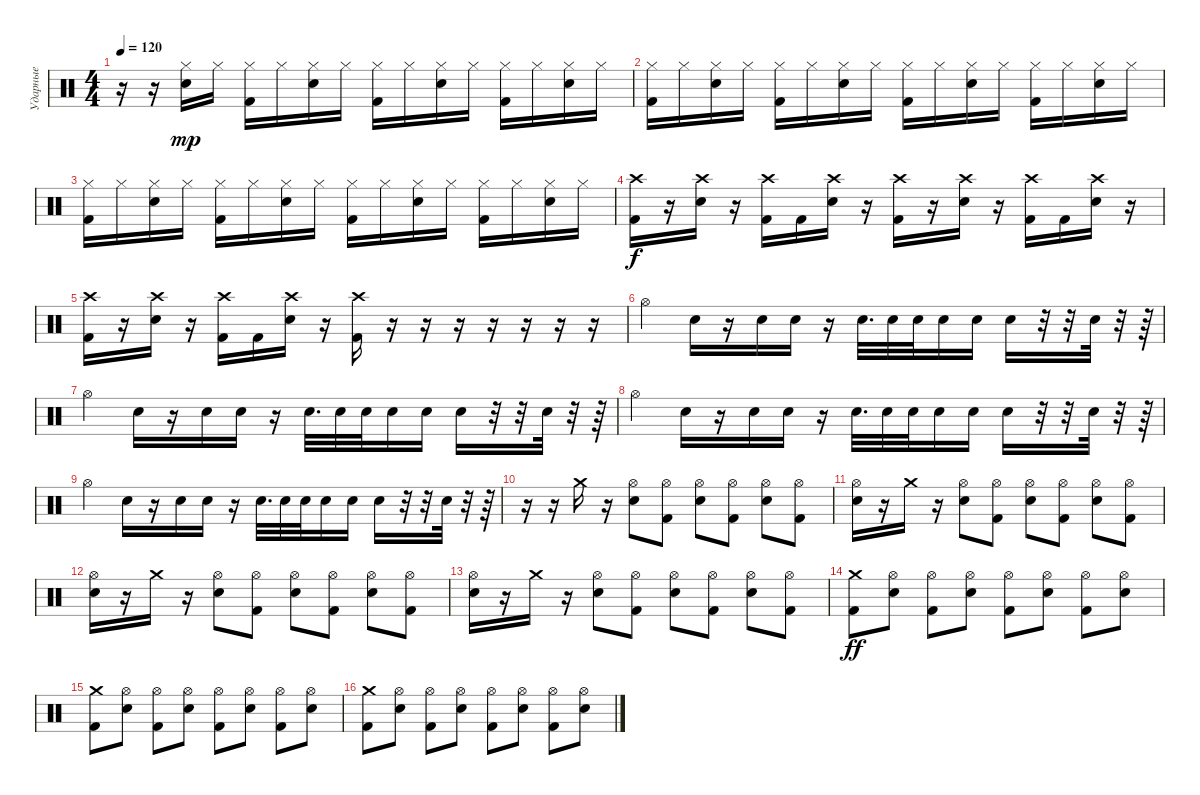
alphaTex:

\track ("Ударные" "Ударные") {instrument percussion}
\staff {score}
\articulation defaults
\ts (4 4)
\tempo 120
\clef neutral
\ks c
r.16{dy mp} r.16 ("Hi-Hat (closed)" "Electric Snare (hit)").16 "Hi-Hat (closed)".16 ("Hi-Hat (closed)" "Kick (hit) 2").16 "Hi-Hat (closed)".16 ("Hi-Hat (closed)" "Electric Snare (hit)").16 "Hi-Hat (closed)".16 ("Hi-Hat (closed)" "Kick (hit) 2").16 "Hi-Hat (closed)".16 ("Hi-Hat (closed)" "Electric Snare (hit)").16 "Hi-Hat (closed)".16 ("Hi-Hat (closed)" "Kick (hit) 2").16 "Hi-Hat (closed)".16 ("Hi-Hat (closed)" "Electric Snare (hit)").16 "Hi-Hat (closed)".16 |
("Hi-Hat (closed)" "Kick (hit) 2").16 "Hi-Hat (closed)".16 ("Hi-Hat (closed)" "Electric Snare (hit)").16 "Hi-Hat (closed)".16 ("Hi-Hat (closed)" "Kick (hit) 2").16 "Hi-Hat (closed)".16 ("Hi-Hat (closed)" "Electric Snare (hit)").16 "Hi-Hat (closed)".16 ("Hi-Hat (closed)" "Kick (hit) 2").16 "Hi-Hat (closed)".16 ("Hi-Hat (closed)" "Electric Snare (hit)").16 "Hi-Hat (closed)".16 ("Hi-Hat (closed)" "Kick (hit) 2").16 "Hi-Hat (closed)".16 ("Hi-Hat (closed)" "Electric Snare (hit)").16 "Hi-Hat (closed)".16 |
("Hi-Hat (closed)" "Kick (hit) 2").16 "Hi-Hat (closed)".16 ("Hi-Hat (closed)" "Electric Snare (hit)").16 "Hi-Hat (closed)".16 ("Hi-Hat (closed)" "Kick (hit) 2").16 "Hi-Hat (closed)".16 ("Hi-Hat (closed)" "Electric Snare (hit)").16 "Hi-Hat (closed)".16 ("Hi-Hat (closed)" "Kick (hit) 2").16 "Hi-Hat (closed)".16 ("Hi-Hat (closed)" "Electric Snare (hit)").16 "Hi-Hat (closed)".16 ("Hi-Hat (closed)" "Kick (hit) 2").16 "Hi-Hat (closed)".16 ("Hi-Hat (closed)" "Electric Snare (hit)").16 "Hi-Hat (closed)".16 |
("Crash high (hit)" "Kick (hit) 2").16{dy f} r.16 ("Crash high (hit)" "Electric Snare (hit)").16 r.16 ("Crash high (hit)" "Kick (hit) 2").16 "Kick (hit) 2".16 ("Crash high (hit)" "Electric Snare (hit)").16 r.16 ("Crash high (hit)" "Kick (hit) 2").16 r.16 ("Crash high (hit)" "Electric Snare (hit)").16 r.16 ("Crash high (hit)" "Kick (hit) 2").16 "Kick (hit) 2".16 ("Crash high (hit)" "Electric Snare (hit)").16 r.16 |
("Crash high (hit)" "Kick (hit) 2").16 r.16 ("Crash high (hit)" "Electric Snare (hit)").16 r.16 ("Crash high (hit)" "Kick (hit) 2").16 "Kick (hit) 2".16 ("Crash high (hit)" "Electric Snare (hit)").16 r.16 ("Crash high (hit)" "Kick (hit) 2").16 r.16 r.16 r.16 r.16 r.16 r.16 r.16 |
"Hi-Hat (open)".4 "Electric Snare (hit)".16 r.16 "Electric Snare (hit)".16 "Electric Snare (hit)".16 r.16 "Electric Snare (hit)".32{d} "Electric Snare (hit)".32 "Electric Snare (hit)".32 "Electric Snare (hit)".16 "Electric Snare (hit)".16 "Electric Snare (hit)".16 r.32 r.32 "Electric Snare (hit)".32 r.32 r.64 |
"Hi-Hat (open)".4 "Electric Snare (hit)".16 r.16 "Electric Snare (hit)".16 "Electric Snare (hit)".16 r.16 "Electric Snare (hit)".32{d} "Electric Snare (hit)".32 "Electric Snare (hit)".32 "Electric Snare (hit)".16 "Electric Snare (hit)".16 "Electric Snare (hit)".16 r.32 r.32 "Electric Snare (hit)".32 r.32 r.64 |
"Hi-Hat (open)".4 "Electric Snare (hit)".16 r.16 "Electric Snare (hit)".16 "Electric Snare (hit)".16 r.16 "Electric Snare (hit)".32{d} "Electric Snare (hit)".32 "Electric Snare (hit)".32 "Electric Snare (hit)".16 "Electric Snare (hit)".16 "Electric Snare (hit)".16 r.32 r.32 "Electric Snare (hit)".32 r.32 r.64 |
"Hi-Hat (open)".4 "Electric Snare (hit)".16 r.16 "Electric Snare (hit)".16 "Electric Snare (hit)".16 r.16 "Electric Snare (hit)".32{d} "Electric Snare (hit)".32 "Electric Snare (hit)".32 "Electric Snare (hit)".16 "Electric Snare (hit)".16 "Electric Snare (hit)".16 r.32 r.32 "Electric Snare (hit)".32 r.32 r.64 |
r.16 r.16 "Crash medium (hit)".16 r.16 ("Hi-Hat (open)" "Electric Snare (hit)").8 ("Hi-Hat (open)" "Kick (hit) 2").8 ("Hi-Hat (open)" "Electric Snare (hit)").8 ("Hi-Hat (open)" "Kick (hit) 2").8 ("Hi-Hat (open)" "Electric Snare (hit)").8 ("Hi-Hat (open)" "Kick (hit) 2").8 |
("Hi-Hat (open)" "Electric Snare (hit)").16 r.16 "Crash medium (hit)".16 r.16 ("Hi-Hat (open)" "Electric Snare (hit)").8 ("Hi-Hat (open)" "Kick (hit) 2").8 ("Hi-Hat (open)" "Electric Snare (hit)").8 ("Hi-Hat (open)" "Kick (hit) 2").8 ("Hi-Hat (open)" "Electric Snare (hit)").8 ("Hi-Hat (open)" "Kick (hit) 2").8 |
("Hi-Hat (open)" "Electric Snare (hit)").16 r.16 "Crash medium (hit)".16 r.16 ("Hi-Hat (open)" "Electric Snare (hit)").8 ("Hi-Hat (open)" "Kick (hit) 2").8 ("Hi-Hat (open)" "Electric Snare (hit)").8 ("Hi-Hat (open)" "Kick (hit) 2").8 ("Hi-Hat (open)" "Electric Snare (hit)").8 ("Hi-Hat (open)" "Kick (hit) 2").8 |
("Hi-Hat (open)" "Electric Snare (hit)").16 r.16 "Crash medium (hit)".16 r.16 ("Hi-Hat (open)" "Electric Snare (hit)").8 ("Hi-Hat (open)" "Kick (hit) 2").8 ("Hi-Hat (open)" "Electric Snare (hit)").8 ("Hi-Hat (open)" "Kick (hit) 2").8 ("Hi-Hat (open)" "Electric Snare (hit)").8 ("Hi-Hat (open)" "Kick (hit) 2").8 |
("Crash medium (hit)" "Kick (hit) 2").8{dy ff} ("Hi-Hat (open)" "Electric Snare (hit)").8 ("Hi-Hat (open)" "Kick (hit) 2").8 ("Hi-Hat (open)" "Electric Snare (hit)").8 ("Hi-Hat (open)" "Kick (hit) 2").8 ("Hi-Hat (open)" "Electric Snare (hit)").8 ("Hi-Hat (open)" "Kick (hit) 2").8 ("Hi-Hat (open)" "Electric Snare (hit)").8 |
("Crash medium (hit)" "Kick (hit) 2").8 ("Hi-Hat (open)" "Electric Snare (hit)").8 ("Hi-Hat (open)" "Kick (hit) 2").8 ("Hi-Hat (open)" "Electric Snare (hit)").8 ("Hi-Hat (open)" "Kick (hit) 2").8 ("Hi-Hat (open)" "Electric Snare (hit)").8 ("Hi-Hat (open)" "Kick (hit) 2").8 ("Hi-Hat (open)" "Electric Snare (hit)").8 |
("Crash medium (hit)" "Kick (hit) 2").8 ("Hi-Hat (open)" "Electric Snare (hit)").8 ("Hi-Hat (open)" "Kick (hit) 2").8 ("Hi-Hat (open)" "Electric Snare (hit)").8 ("Hi-Hat (open)" "Kick (hit) 2").8 ("Hi-Hat (open)" "Electric Snare (hit)").8 ("Hi-Hat (open)" "Kick (hit) 2").8 ("Hi-Hat (open)" "Electric Snare (hit)").8
